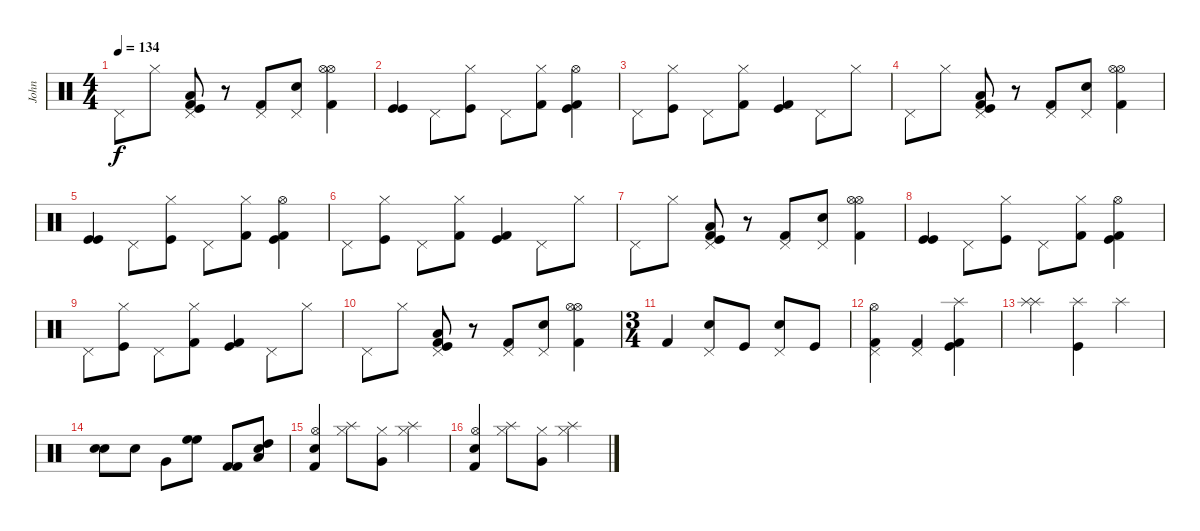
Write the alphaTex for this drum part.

\track ("John" "John") {instrument percussion}
\staff {score}
\articulation defaults
\ts (4 4)
\tempo 134
\clef neutral
\ks c "Pedal Hi-Hat (hit)".8{dy f} "Hi-Hat (closed)".8
("Low Tom (hit)" "Kick (hit)" "Kick (hit) 2" "Pedal Hi-Hat (hit)").8 r.8 ("Pedal Hi-Hat (hit)" "Kick (hit) 2").8 ("Pedal Hi-Hat (hit)" "Snare (hit) 2").8 ("Kick (hit) 2" "Hi-Hat (open)" "Hi-Hat (open)").4 |
("Kick (hit)" "Kick (hit)").4 "Pedal Hi-Hat (hit)".8 ("Hi-Hat (closed)" "Kick (hit)").8 "Pedal Hi-Hat (hit)".8 ("Hi-Hat (closed)" "Kick (hit) 2").8 ("Kick (hit)" "Kick (hit) 2" "Hi-Hat (open)").4 |
"Pedal Hi-Hat (hit)".8 ("Hi-Hat (closed)" "Kick (hit)").8 "Pedal Hi-Hat (hit)".8 ("Hi-Hat (closed)" "Kick (hit) 2").8 ("Kick (hit)" "Kick (hit) 2").4 "Pedal Hi-Hat (hit)".8 "Hi-Hat (closed)".8 |
"Pedal Hi-Hat (hit)".8 "Hi-Hat (closed)".8 ("Low Tom (hit)" "Kick (hit)" "Kick (hit) 2" "Pedal Hi-Hat (hit)").8 r.8 ("Pedal Hi-Hat (hit)" "Kick (hit) 2").8 ("Pedal Hi-Hat (hit)" "Snare (hit) 2").8 ("Kick (hit) 2" "Hi-Hat (open)" "Hi-Hat (open)").4 |
("Kick (hit)" "Kick (hit)").4 "Pedal Hi-Hat (hit)".8 ("Hi-Hat (closed)" "Kick (hit)").8 "Pedal Hi-Hat (hit)".8 ("Hi-Hat (closed)" "Kick (hit) 2").8 ("Kick (hit)" "Kick (hit) 2" "Hi-Hat (open)").4 |
"Pedal Hi-Hat (hit)".8 ("Hi-Hat (closed)" "Kick (hit)").8 "Pedal Hi-Hat (hit)".8 ("Hi-Hat (closed)" "Kick (hit) 2").8 ("Kick (hit)" "Kick (hit) 2").4 "Pedal Hi-Hat (hit)".8 "Hi-Hat (closed)".8 |
"Pedal Hi-Hat (hit)".8 "Hi-Hat (closed)".8 ("Low Tom (hit)" "Kick (hit)" "Kick (hit) 2" "Pedal Hi-Hat (hit)").8 r.8 ("Pedal Hi-Hat (hit)" "Kick (hit) 2").8 ("Pedal Hi-Hat (hit)" "Snare (hit) 2").8 ("Kick (hit) 2" "Hi-Hat (open)" "Hi-Hat (open)").4 |
("Kick (hit)" "Kick (hit)").4 "Pedal Hi-Hat (hit)".8 ("Hi-Hat (closed)" "Kick (hit)").8 "Pedal Hi-Hat (hit)".8 ("Hi-Hat (closed)" "Kick (hit) 2").8 ("Kick (hit)" "Kick (hit) 2" "Hi-Hat (open)").4 |
"Pedal Hi-Hat (hit)".8 ("Hi-Hat (closed)" "Kick (hit)").8 "Pedal Hi-Hat (hit)".8 ("Hi-Hat (closed)" "Kick (hit) 2").8 ("Kick (hit)" "Kick (hit) 2").4 "Pedal Hi-Hat (hit)".8 "Hi-Hat (closed)".8 |
"Pedal Hi-Hat (hit)".8 "Hi-Hat (closed)".8 ("Low Tom (hit)" "Kick (hit)" "Kick (hit) 2" "Pedal Hi-Hat (hit)").8 r.8 ("Pedal Hi-Hat (hit)" "Kick (hit) 2").8 ("Pedal Hi-Hat (hit)" "Snare (hit) 2").8 ("Kick (hit) 2" "Hi-Hat (open)" "Hi-Hat (open)").4 |
\ts (3 4)
"Kick (hit) 2".4 ("Pedal Hi-Hat (hit)" "Snare (hit) 2").8 "Kick (hit)".8 ("Pedal Hi-Hat (hit)" "Snare (hit) 2").8 "Kick (hit)".8 |
("Pedal Hi-Hat (hit)" "Kick (hit) 2" "Hi-Hat (open)").4 ("Pedal Hi-Hat (hit)" "Kick (hit) 2").4 ("Splash (hit)" "Kick (hit)" "Kick (hit) 2").4 |
("Splash (hit)" "Splash (hit)").4 ("Splash (hit)" "Kick (hit)").4 "Splash (hit)".4 |
("Snare (hit) 2" "Snare (hit) 2").8 "Snare (hit) 2".8 "Very Low Tom (hit)".8 ("High Floor Tom (hit)" "High Floor Tom (hit)").8 ("Kick (hit) 2" "Kick (hit) 2").8 ("Electric Snare (hit)" "High Tom (hit)" "Low Tom (hit)").8 |
("Hi-Hat (open)" "Electric Snare (hit)" "Kick (hit) 2").4 ("Hi-Hat (closed)" "Splash (hit)").8 ("Hi-Hat (closed)" "Very Low Tom (hit)").8 ("Hi-Hat (closed)" "Splash (hit)").4 |
("Hi-Hat (open)" "Electric Snare (hit)" "Kick (hit) 2").4 ("Hi-Hat (closed)" "Splash (hit)").8 ("Hi-Hat (closed)" "Very Low Tom (hit)").8 ("Hi-Hat (closed)" "Splash (hit)").4
